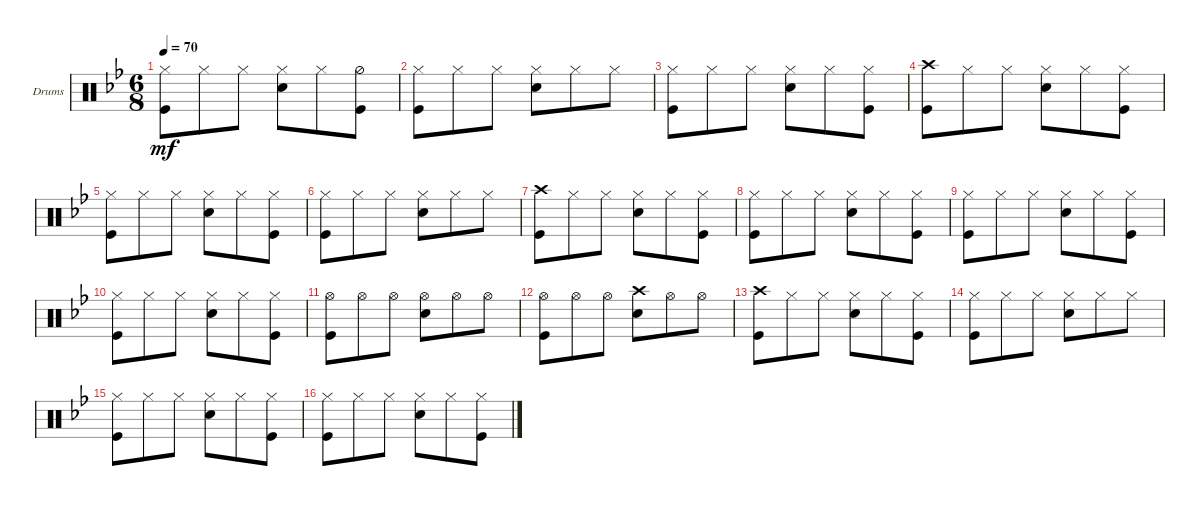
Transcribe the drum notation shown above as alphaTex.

\defaultSystemsLayout 4
\bracketExtendMode groupsimilarinstruments
\firstSystemTrackNameOrientation horizontal
\otherSystemsTrackNameOrientation horizontal
\track ("Drumkit" "Drums") {instrument percussion}
\staff {score}
\articulation defaults
\ts (6 8)
\tempo 70
\clef neutral
\ks gminor
("Hi-Hat (closed)" "Kick (hit)").8{dy mf} "Hi-Hat (closed)".8 "Hi-Hat (closed)".8 ("Hi-Hat (closed)" "Snare (hit) 2").8 "Hi-Hat (closed)".8 ("Kick (hit)" "Hi-Hat (half)").8 |
("Hi-Hat (closed)" "Kick (hit)").8 "Hi-Hat (closed)".8 "Hi-Hat (closed)".8 ("Hi-Hat (closed)" "Snare (hit) 2").8 "Hi-Hat (closed)".8 "Hi-Hat (closed)".8 |
("Hi-Hat (closed)" "Kick (hit)").8 "Hi-Hat (closed)".8 "Hi-Hat (closed)".8 ("Snare (hit) 2" "Hi-Hat (closed)").8 "Hi-Hat (closed)".8 ("Kick (hit)" "Hi-Hat (closed)").8 |
("Kick (hit)" "Crash high (hit)").8 "Hi-Hat (closed)".8 "Hi-Hat (closed)".8 ("Hi-Hat (closed)" "Snare (hit) 2").8 "Hi-Hat (closed)".8 ("Hi-Hat (closed)" "Kick (hit)").8 |
("Hi-Hat (closed)" "Kick (hit)").8 "Hi-Hat (closed)".8 "Hi-Hat (closed)".8 ("Hi-Hat (closed)" "Snare (hit) 2").8 "Hi-Hat (closed)".8 ("Kick (hit)" "Hi-Hat (closed)").8 |
("Hi-Hat (closed)" "Kick (hit)").8 "Hi-Hat (closed)".8 "Hi-Hat (closed)".8 ("Hi-Hat (closed)" "Snare (hit) 2").8 "Hi-Hat (closed)".8 "Hi-Hat (closed)".8 |
("Kick (hit)" "Crash high (hit)").8 "Hi-Hat (closed)".8 "Hi-Hat (closed)".8 ("Hi-Hat (closed)" "Snare (hit) 2").8 "Hi-Hat (closed)".8 ("Hi-Hat (closed)" "Kick (hit)").8 |
("Hi-Hat (closed)" "Kick (hit)").8 "Hi-Hat (closed)".8 "Hi-Hat (closed)".8 ("Hi-Hat (closed)" "Snare (hit) 2").8 "Hi-Hat (closed)".8 ("Hi-Hat (closed)" "Kick (hit)").8 |
("Hi-Hat (closed)" "Kick (hit)").8 "Hi-Hat (closed)".8 "Hi-Hat (closed)".8 ("Hi-Hat (closed)" "Snare (hit) 2").8 "Hi-Hat (closed)".8 ("Hi-Hat (closed)" "Kick (hit)").8 |
("Hi-Hat (closed)" "Kick (hit)").8 "Hi-Hat (closed)".8 "Hi-Hat (closed)".8 ("Hi-Hat (closed)" "Snare (hit) 2").8 "Hi-Hat (closed)".8 ("Hi-Hat (closed)" "Kick (hit)").8 |
("Hi-Hat (open)" "Kick (hit)").8 "Hi-Hat (open)".8 "Hi-Hat (open)".8 ("Hi-Hat (open)" "Snare (hit) 2").8 "Hi-Hat (open)".8 "Hi-Hat (open)".8 |
("Hi-Hat (open)" "Kick (hit)").8 "Hi-Hat (open)".8 "Hi-Hat (open)".8 ("Snare (hit) 2" "Crash high (hit)").8 "Hi-Hat (open)".8 "Hi-Hat (open)".8 |
("Kick (hit)" "Crash high (hit)").8 "Hi-Hat (closed)".8 "Hi-Hat (closed)".8 ("Hi-Hat (closed)" "Snare (hit) 2").8 "Hi-Hat (closed)".8 ("Hi-Hat (closed)" "Kick (hit)").8 |
("Hi-Hat (closed)" "Kick (hit)").8 "Hi-Hat (closed)".8 "Hi-Hat (closed)".8 ("Hi-Hat (closed)" "Snare (hit) 2").8 "Hi-Hat (closed)".8 "Hi-Hat (closed)".8 |
("Hi-Hat (closed)" "Kick (hit)").8 "Hi-Hat (closed)".8 "Hi-Hat (closed)".8 ("Hi-Hat (closed)" "Snare (hit) 2").8 "Hi-Hat (closed)".8 ("Hi-Hat (closed)" "Kick (hit)").8 |
("Kick (hit)" "Hi-Hat (closed)").8 "Hi-Hat (closed)".8 "Hi-Hat (closed)".8 ("Hi-Hat (closed)" "Snare (hit) 2").8 "Hi-Hat (closed)".8 ("Hi-Hat (closed)" "Kick (hit)").8
